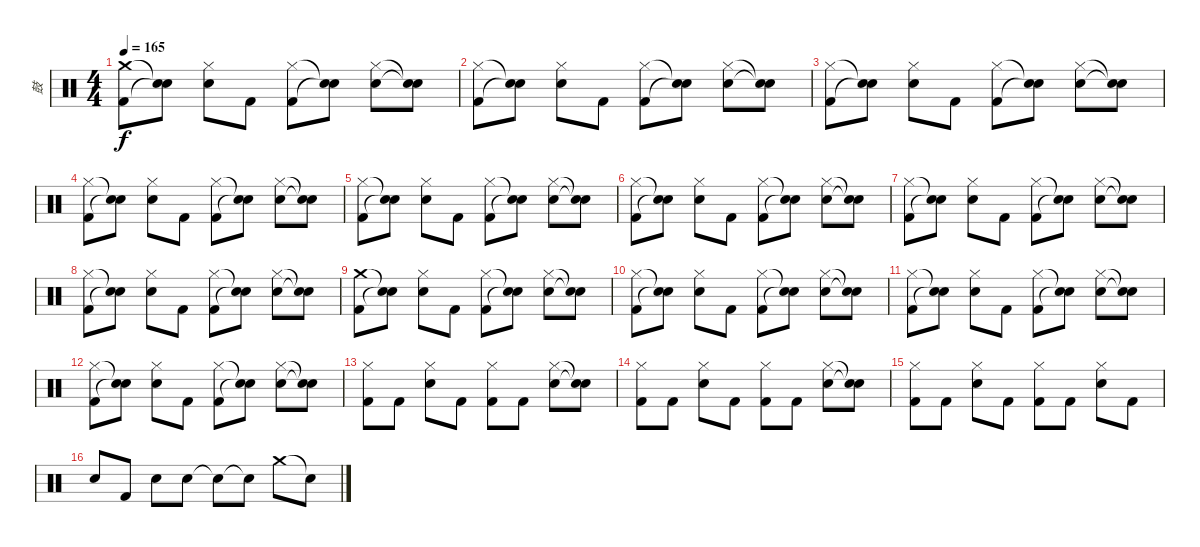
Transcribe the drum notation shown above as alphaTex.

\track ("鼓" "鼓") {instrument percussion}
\staff {score}
\articulation defaults
\ts (4 4)
\tempo 165
\clef neutral
\ks c
("Crash medium (hit)" "Kick (hit) 2").8{dy f} ("Snare (hit)"{t} "Snare (hit)"{t}).8 ("Hi-Hat (closed)" "Snare (hit) 2").8 "Kick (hit) 2".8 ("Hi-Hat (closed)" "Kick (hit) 2").8 ("Snare (hit)"{t} "Snare (hit)"{t}).8 ("Hi-Hat (closed)" "Snare (hit) 2").8 ("Snare (hit)"{t} "Snare (hit)"{t}).8 |
("Hi-Hat (closed)" "Kick (hit) 2").8 ("Snare (hit)"{t} "Snare (hit)"{t}).8 ("Hi-Hat (closed)" "Snare (hit) 2").8 "Kick (hit) 2".8 ("Hi-Hat (closed)" "Kick (hit) 2").8 ("Snare (hit)"{t} "Snare (hit)"{t}).8 ("Hi-Hat (closed)" "Snare (hit) 2").8 ("Snare (hit)"{t} "Snare (hit)"{t}).8 |
("Hi-Hat (closed)" "Kick (hit) 2").8 ("Snare (hit)"{t} "Snare (hit)"{t}).8 ("Hi-Hat (closed)" "Snare (hit) 2").8 "Kick (hit) 2".8 ("Hi-Hat (closed)" "Kick (hit) 2").8 ("Snare (hit)"{t} "Snare (hit)"{t}).8 ("Hi-Hat (closed)" "Snare (hit) 2").8 ("Snare (hit)"{t} "Snare (hit)"{t}).8 |
("Hi-Hat (closed)" "Kick (hit) 2").8 ("Snare (hit)"{t} "Snare (hit)"{t}).8 ("Hi-Hat (closed)" "Snare (hit) 2").8 "Kick (hit) 2".8 ("Hi-Hat (closed)" "Kick (hit) 2").8 ("Snare (hit)"{t} "Snare (hit)"{t}).8 ("Hi-Hat (closed)" "Snare (hit) 2").8 ("Snare (hit)"{t} "Snare (hit)"{t}).8 |
("Hi-Hat (closed)" "Kick (hit) 2").8 ("Snare (hit)"{t} "Snare (hit)"{t}).8 ("Hi-Hat (closed)" "Snare (hit) 2").8 "Kick (hit) 2".8 ("Hi-Hat (closed)" "Kick (hit) 2").8 ("Snare (hit)"{t} "Snare (hit)"{t}).8 ("Hi-Hat (closed)" "Snare (hit) 2").8 ("Snare (hit)"{t} "Snare (hit)"{t}).8 |
("Hi-Hat (closed)" "Kick (hit) 2").8 ("Snare (hit)"{t} "Snare (hit)"{t}).8 ("Hi-Hat (closed)" "Snare (hit) 2").8 "Kick (hit) 2".8 ("Hi-Hat (closed)" "Kick (hit) 2").8 ("Snare (hit)"{t} "Snare (hit)"{t}).8 ("Hi-Hat (closed)" "Snare (hit) 2").8 ("Snare (hit)"{t} "Snare (hit)"{t}).8 |
("Hi-Hat (closed)" "Kick (hit) 2").8 ("Snare (hit)"{t} "Snare (hit)"{t}).8 ("Hi-Hat (closed)" "Snare (hit) 2").8 "Kick (hit) 2".8 ("Hi-Hat (closed)" "Kick (hit) 2").8 ("Snare (hit)"{t} "Snare (hit)"{t}).8 ("Hi-Hat (closed)" "Snare (hit) 2").8 ("Snare (hit)"{t} "Snare (hit)"{t}).8 |
("Hi-Hat (closed)" "Kick (hit) 2").8 ("Snare (hit)"{t} "Snare (hit)"{t}).8 ("Hi-Hat (closed)" "Snare (hit) 2").8 "Kick (hit) 2".8 ("Hi-Hat (closed)" "Kick (hit) 2").8 ("Snare (hit)"{t} "Snare (hit)"{t}).8 ("Hi-Hat (closed)" "Snare (hit) 2").8 ("Snare (hit)"{t} "Snare (hit)"{t}).8 |
("Crash medium (hit)" "Kick (hit) 2").8 ("Snare (hit)"{t} "Snare (hit)"{t}).8 ("Hi-Hat (closed)" "Snare (hit) 2").8 "Kick (hit) 2".8 ("Hi-Hat (closed)" "Kick (hit) 2").8 ("Snare (hit)"{t} "Snare (hit)"{t}).8 ("Hi-Hat (closed)" "Snare (hit) 2").8 ("Snare (hit)"{t} "Snare (hit)"{t}).8 |
("Hi-Hat (closed)" "Kick (hit) 2").8 ("Snare (hit)"{t} "Snare (hit)"{t}).8 ("Hi-Hat (closed)" "Snare (hit) 2").8 "Kick (hit) 2".8 ("Hi-Hat (closed)" "Kick (hit) 2").8 ("Snare (hit)"{t} "Snare (hit)"{t}).8 ("Hi-Hat (closed)" "Snare (hit) 2").8 ("Snare (hit)"{t} "Snare (hit)"{t}).8 |
("Hi-Hat (closed)" "Kick (hit) 2").8 ("Snare (hit)"{t} "Snare (hit)"{t}).8 ("Hi-Hat (closed)" "Snare (hit) 2").8 "Kick (hit) 2".8 ("Hi-Hat (closed)" "Kick (hit) 2").8 ("Snare (hit)"{t} "Snare (hit)"{t}).8 ("Hi-Hat (closed)" "Snare (hit) 2").8 ("Snare (hit)"{t} "Snare (hit)"{t}).8 |
("Hi-Hat (closed)" "Kick (hit) 2").8 ("Snare (hit)"{t} "Snare (hit)"{t}).8 ("Hi-Hat (closed)" "Snare (hit) 2").8 "Kick (hit) 2".8 ("Hi-Hat (closed)" "Kick (hit) 2").8 ("Snare (hit)"{t} "Snare (hit)"{t}).8 ("Hi-Hat (closed)" "Snare (hit) 2").8 ("Snare (hit)"{t} "Snare (hit)"{t}).8 |
("Hi-Hat (closed)" "Kick (hit) 2").8 "Kick (hit) 2".8 ("Hi-Hat (closed)" "Snare (hit) 2").8 "Kick (hit) 2".8 ("Hi-Hat (closed)" "Kick (hit) 2").8 "Kick (hit) 2".8 ("Hi-Hat (closed)" "Snare (hit) 2").8 ("Snare (hit)"{t} "Snare (hit)"{t}).8 |
("Hi-Hat (closed)" "Kick (hit) 2").8 "Kick (hit) 2".8 ("Hi-Hat (closed)" "Snare (hit) 2").8 "Kick (hit) 2".8 ("Hi-Hat (closed)" "Kick (hit) 2").8 "Kick (hit) 2".8 ("Hi-Hat (closed)" "Snare (hit) 2").8 ("Snare (hit)"{t} "Snare (hit)"{t}).8 |
("Hi-Hat (closed)" "Kick (hit) 2").8 "Kick (hit) 2".8 ("Hi-Hat (closed)" "Snare (hit) 2").8 "Kick (hit) 2".8 ("Hi-Hat (closed)" "Kick (hit) 2").8 "Kick (hit) 2".8 ("Hi-Hat (closed)" "Snare (hit) 2").8 "Kick (hit) 2".8 |
"Snare (hit) 2".8 "Kick (hit) 2".8 "Snare (hit) 2".8 "Snare (hit) 2".8 "Snare (hit)"{t}.8 "Snare (hit)"{t}.8 "Crash medium (hit)".8 "Snare (hit)"{t}.8
